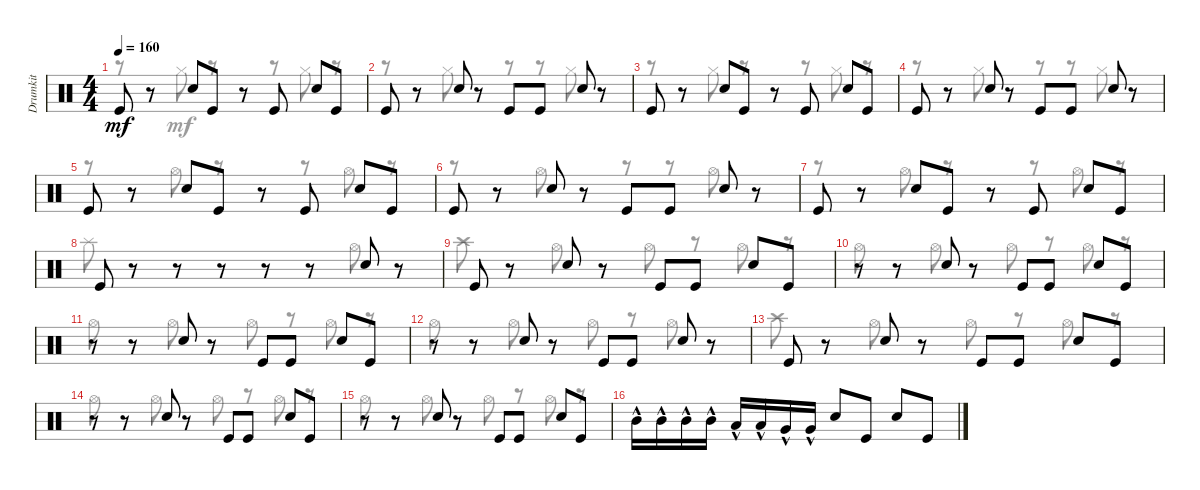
\track ("Drumkit" "Drumkit") {instrument percussion}
\staff {score}
\articulation defaults
\voice
\ts (4 4)
\section ("" "")
\tempo 160
\clef neutral
\ks c "Kick (hit)".8{dy mf}
r.8 "Snare (hit) 2".8 "Kick (hit)".8 r.8 "Kick (hit)".8 "Snare (hit) 2".8 "Kick (hit)".8 |
"Kick (hit)".8 r.8 "Snare (hit) 2".8 r.8 "Kick (hit)".8 "Kick (hit)".8 "Snare (hit) 2".8 r.8 |
"Kick (hit)".8 r.8 "Snare (hit) 2".8 "Kick (hit)".8 r.8 "Kick (hit)".8 "Snare (hit) 2".8 "Kick (hit)".8 |
"Kick (hit)".8 r.8 "Snare (hit) 2".8 r.8 "Kick (hit)".8 "Kick (hit)".8 "Snare (hit) 2".8 r.8 |
"Kick (hit)".8 r.8 "Snare (hit) 2".8 "Kick (hit)".8 r.8 "Kick (hit)".8 "Snare (hit) 2".8 "Kick (hit)".8 |
"Kick (hit)".8 r.8 "Snare (hit) 2".8 r.8 "Kick (hit)".8 "Kick (hit)".8 "Snare (hit) 2".8 r.8 |
"Kick (hit)".8 r.8 "Snare (hit) 2".8 "Kick (hit)".8 r.8 "Kick (hit)".8 "Snare (hit) 2".8 "Kick (hit)".8 |
"Kick (hit)".8 r.8 r.8 r.8 r.8 r.8 "Snare (hit) 2".8 r.8 |
"Kick (hit)".8 r.8 "Snare (hit) 2".8 r.8 "Kick (hit)".8 "Kick (hit)".8 "Snare (hit) 2".8 "Kick (hit)".8 |
r.8 r.8 "Snare (hit) 2".8 r.8 "Kick (hit)".8 "Kick (hit)".8 "Snare (hit) 2".8 "Kick (hit)".8 |
r.8 r.8 "Snare (hit) 2".8 r.8 "Kick (hit)".8 "Kick (hit)".8 "Snare (hit) 2".8 "Kick (hit)".8 |
r.8 r.8 "Snare (hit) 2".8 r.8 "Kick (hit)".8 "Kick (hit)".8 "Snare (hit) 2".8 r.8 |
"Kick (hit)".8 r.8 "Snare (hit) 2".8 r.8 "Kick (hit)".8 "Kick (hit)".8 "Snare (hit) 2".8 "Kick (hit)".8 |
r.8 r.8 "Snare (hit) 2".8 r.8 "Kick (hit)".8 "Kick (hit)".8 "Snare (hit) 2".8 "Kick (hit)".8 |
r.8 r.8 "Snare (hit) 2".8 r.8 "Kick (hit)".8 "Kick (hit)".8 "Snare (hit) 2".8 "Kick (hit)".8 |
"Mid Tom (hit)"{hac}.16 "Mid Tom (hit)"{hac}.16 "Mid Tom (hit)"{hac}.16 "Mid Tom (hit)"{hac}.16 "Low Tom (hit)"{hac}.16 "Low Tom (hit)"{hac}.16 "Very Low Tom (hit)"{hac}.16 "Very Low Tom (hit)"{hac}.16 "Snare (hit) 2".8 "Kick (hit)".8 "Snare (hit) 2".8 "Kick (hit)".8
\voice
\clef neutral
\ottava regular
\simile none
\ks c
r.8{dy mf} r.8 "Hi-Hat (closed)".8 r.8 r.8 r.8 "Hi-Hat (closed)".8 r.8 |
r.8 r.8 "Hi-Hat (closed)".8 r.8 r.8 r.8 "Hi-Hat (closed)".8 r.8 |
r.8 r.8 "Hi-Hat (closed)".8 r.8 r.8 r.8 "Hi-Hat (closed)".8 r.8 |
r.8 r.8 "Hi-Hat (closed)".8 r.8 r.8 r.8 "Hi-Hat (closed)".8 r.8 |
r.8 r.8 "Hi-Hat (open)".8 r.8 r.8 r.8 "Hi-Hat (open)".8 r.8 |
r.8 r.8 "Hi-Hat (open)".8 r.8 r.8 r.8 "Hi-Hat (open)".8 r.8 |
r.8 r.8 "Hi-Hat (open)".8 r.8 r.8 r.8 "Hi-Hat (open)".8 r.8 |
"Splash (hit)".8 r.8 r.8 r.8 r.8 r.8 "Hi-Hat (open)".8 r.8 |
"Crash high (hit)".8 r.8 "Hi-Hat (open)".8 r.8 "Hi-Hat (open)".8 r.8 "Hi-Hat (open)".8 r.8 |
"Hi-Hat (open)".8 r.8 "Hi-Hat (open)".8 r.8 "Hi-Hat (open)".8 r.8 "Hi-Hat (open)".8 r.8 |
"Hi-Hat (open)".8 r.8 "Hi-Hat (open)".8 r.8 "Hi-Hat (open)".8 r.8 "Hi-Hat (open)".8 r.8 |
"Hi-Hat (open)".8 r.8 "Hi-Hat (open)".8 r.8 "Hi-Hat (open)".8 r.8 "Hi-Hat (open)".8 r.8 |
"Crash high (hit)".8 r.8 "Hi-Hat (open)".8 r.8 "Hi-Hat (open)".8 r.8 "Hi-Hat (open)".8 r.8 |
"Hi-Hat (open)".8 r.8 "Hi-Hat (open)".8 r.8 "Hi-Hat (open)".8 r.8 "Hi-Hat (open)".8 r.8 |
"Hi-Hat (open)".8 r.8 "Hi-Hat (open)".8 r.8 "Hi-Hat (open)".8 r.8 "Hi-Hat (open)".8 r.8 |
